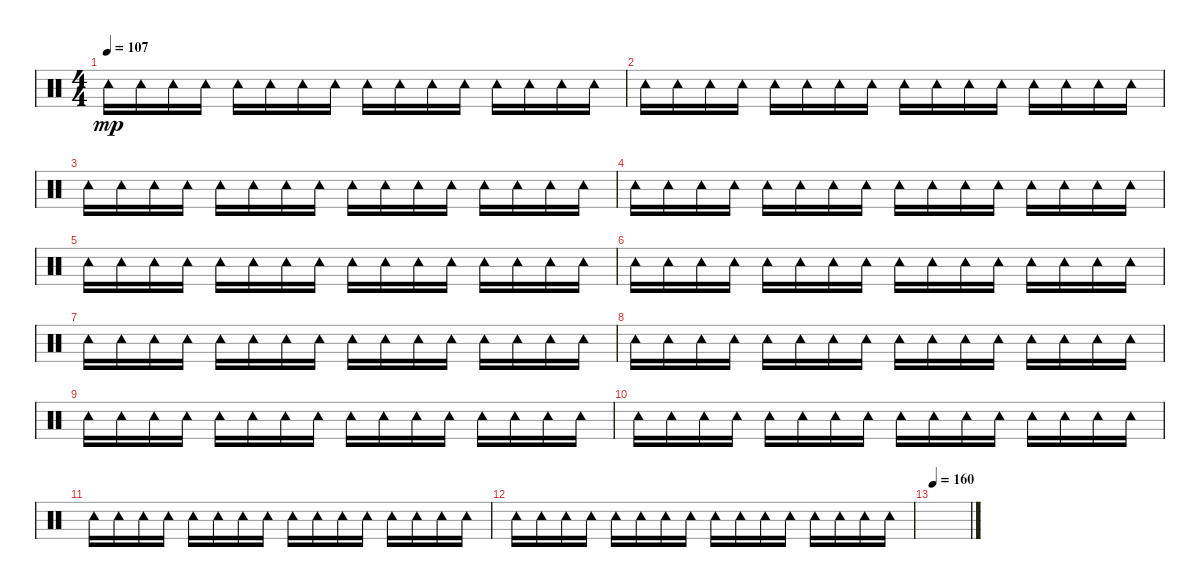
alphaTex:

\track "" {instrument percussion}
\staff {score}
\articulation defaults
\ts (4 4)
\tempo 107
\clef neutral
\ks c "Tambourine (hit)".16{dy mp} "Tambourine (hit)".16 "Tambourine (hit)".16 "Tambourine (hit)".16 "Tambourine (hit)".16 "Tambourine (hit)".16 "Tambourine (hit)".16 "Tambourine (hit)".16 "Tambourine (hit)".16 "Tambourine (hit)".16 "Tambourine (hit)".16 "Tambourine (hit)".16 "Tambourine (hit)".16 "Tambourine (hit)".16 "Tambourine (hit)".16 "Tambourine (hit)".16
|
"Tambourine (hit)".16 "Tambourine (hit)".16 "Tambourine (hit)".16 "Tambourine (hit)".16 "Tambourine (hit)".16 "Tambourine (hit)".16 "Tambourine (hit)".16 "Tambourine (hit)".16 "Tambourine (hit)".16 "Tambourine (hit)".16 "Tambourine (hit)".16 "Tambourine (hit)".16 "Tambourine (hit)".16 "Tambourine (hit)".16 "Tambourine (hit)".16 "Tambourine (hit)".16 |
"Tambourine (hit)".16 "Tambourine (hit)".16 "Tambourine (hit)".16 "Tambourine (hit)".16 "Tambourine (hit)".16 "Tambourine (hit)".16 "Tambourine (hit)".16 "Tambourine (hit)".16 "Tambourine (hit)".16 "Tambourine (hit)".16 "Tambourine (hit)".16 "Tambourine (hit)".16 "Tambourine (hit)".16 "Tambourine (hit)".16 "Tambourine (hit)".16 "Tambourine (hit)".16 |
"Tambourine (hit)".16 "Tambourine (hit)".16 "Tambourine (hit)".16 "Tambourine (hit)".16 "Tambourine (hit)".16 "Tambourine (hit)".16 "Tambourine (hit)".16 "Tambourine (hit)".16 "Tambourine (hit)".16 "Tambourine (hit)".16 "Tambourine (hit)".16 "Tambourine (hit)".16 "Tambourine (hit)".16 "Tambourine (hit)".16 "Tambourine (hit)".16 "Tambourine (hit)".16 |
"Tambourine (hit)".16 "Tambourine (hit)".16 "Tambourine (hit)".16 "Tambourine (hit)".16 "Tambourine (hit)".16 "Tambourine (hit)".16 "Tambourine (hit)".16 "Tambourine (hit)".16 "Tambourine (hit)".16 "Tambourine (hit)".16 "Tambourine (hit)".16 "Tambourine (hit)".16 "Tambourine (hit)".16 "Tambourine (hit)".16 "Tambourine (hit)".16 "Tambourine (hit)".16 |
"Tambourine (hit)".16 "Tambourine (hit)".16 "Tambourine (hit)".16 "Tambourine (hit)".16 "Tambourine (hit)".16 "Tambourine (hit)".16 "Tambourine (hit)".16 "Tambourine (hit)".16 "Tambourine (hit)".16 "Tambourine (hit)".16 "Tambourine (hit)".16 "Tambourine (hit)".16 "Tambourine (hit)".16 "Tambourine (hit)".16 "Tambourine (hit)".16 "Tambourine (hit)".16 |
"Tambourine (hit)".16 "Tambourine (hit)".16 "Tambourine (hit)".16 "Tambourine (hit)".16 "Tambourine (hit)".16 "Tambourine (hit)".16 "Tambourine (hit)".16 "Tambourine (hit)".16 "Tambourine (hit)".16 "Tambourine (hit)".16 "Tambourine (hit)".16 "Tambourine (hit)".16 "Tambourine (hit)".16 "Tambourine (hit)".16 "Tambourine (hit)".16 "Tambourine (hit)".16 |
"Tambourine (hit)".16 "Tambourine (hit)".16 "Tambourine (hit)".16 "Tambourine (hit)".16 "Tambourine (hit)".16 "Tambourine (hit)".16 "Tambourine (hit)".16 "Tambourine (hit)".16 "Tambourine (hit)".16 "Tambourine (hit)".16 "Tambourine (hit)".16 "Tambourine (hit)".16 "Tambourine (hit)".16 "Tambourine (hit)".16 "Tambourine (hit)".16 "Tambourine (hit)".16 |
"Tambourine (hit)".16 "Tambourine (hit)".16 "Tambourine (hit)".16 "Tambourine (hit)".16 "Tambourine (hit)".16 "Tambourine (hit)".16 "Tambourine (hit)".16 "Tambourine (hit)".16 "Tambourine (hit)".16 "Tambourine (hit)".16 "Tambourine (hit)".16 "Tambourine (hit)".16 "Tambourine (hit)".16 "Tambourine (hit)".16 "Tambourine (hit)".16 "Tambourine (hit)".16 |
"Tambourine (hit)".16 "Tambourine (hit)".16 "Tambourine (hit)".16 "Tambourine (hit)".16 "Tambourine (hit)".16 "Tambourine (hit)".16 "Tambourine (hit)".16 "Tambourine (hit)".16 "Tambourine (hit)".16 "Tambourine (hit)".16 "Tambourine (hit)".16 "Tambourine (hit)".16 "Tambourine (hit)".16 "Tambourine (hit)".16 "Tambourine (hit)".16 "Tambourine (hit)".16 |
"Tambourine (hit)".16 "Tambourine (hit)".16 "Tambourine (hit)".16 "Tambourine (hit)".16 "Tambourine (hit)".16 "Tambourine (hit)".16 "Tambourine (hit)".16 "Tambourine (hit)".16 "Tambourine (hit)".16 "Tambourine (hit)".16 "Tambourine (hit)".16 "Tambourine (hit)".16 "Tambourine (hit)".16 "Tambourine (hit)".16 "Tambourine (hit)".16 "Tambourine (hit)".16 |
"Tambourine (hit)".16 "Tambourine (hit)".16 "Tambourine (hit)".16 "Tambourine (hit)".16 "Tambourine (hit)".16 "Tambourine (hit)".16 "Tambourine (hit)".16 "Tambourine (hit)".16 "Tambourine (hit)".16 "Tambourine (hit)".16 "Tambourine (hit)".16 "Tambourine (hit)".16 "Tambourine (hit)".16 "Tambourine (hit)".16 "Tambourine (hit)".16 "Tambourine (hit)".16 |
\tempo 160
